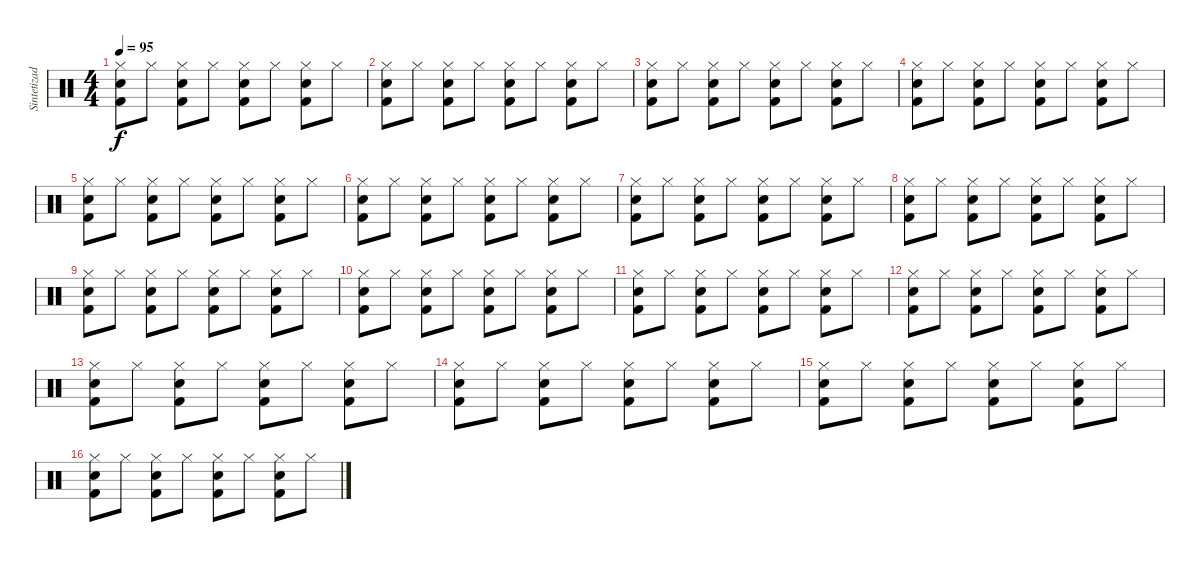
\track ("Sintetizador" "Sintetizad") {instrument percussion}
\staff {score}
\articulation defaults
\ts (4 4)
\tempo 95
\clef neutral
\ks c
("Hi-Hat (closed)" "Hand Clap (hit)" "Kick (hit) 2").8{dy f} "Hi-Hat (closed)".8 ("Hi-Hat (closed)" "Hand Clap (hit)" "Kick (hit) 2").8 "Hi-Hat (closed)".8 ("Hi-Hat (closed)" "Hand Clap (hit)" "Kick (hit) 2").8 "Hi-Hat (closed)".8 ("Hi-Hat (closed)" "Hand Clap (hit)" "Kick (hit) 2").8 "Hi-Hat (closed)".8 |
("Hi-Hat (closed)" "Hand Clap (hit)" "Kick (hit) 2").8 "Hi-Hat (closed)".8 ("Hi-Hat (closed)" "Hand Clap (hit)" "Kick (hit) 2").8 "Hi-Hat (closed)".8 ("Hi-Hat (closed)" "Hand Clap (hit)" "Kick (hit) 2").8 "Hi-Hat (closed)".8 ("Hi-Hat (closed)" "Hand Clap (hit)" "Kick (hit) 2").8 "Hi-Hat (closed)".8 |
("Hi-Hat (closed)" "Hand Clap (hit)" "Kick (hit) 2").8 "Hi-Hat (closed)".8 ("Hi-Hat (closed)" "Hand Clap (hit)" "Kick (hit) 2").8 "Hi-Hat (closed)".8 ("Hi-Hat (closed)" "Hand Clap (hit)" "Kick (hit) 2").8 "Hi-Hat (closed)".8 ("Hi-Hat (closed)" "Hand Clap (hit)" "Kick (hit) 2").8 "Hi-Hat (closed)".8 |
("Hi-Hat (closed)" "Hand Clap (hit)" "Kick (hit) 2").8 "Hi-Hat (closed)".8 ("Hi-Hat (closed)" "Hand Clap (hit)" "Kick (hit) 2").8 "Hi-Hat (closed)".8 ("Hi-Hat (closed)" "Hand Clap (hit)" "Kick (hit) 2").8 "Hi-Hat (closed)".8 ("Hi-Hat (closed)" "Hand Clap (hit)" "Kick (hit) 2").8 "Hi-Hat (closed)".8 |
("Hi-Hat (closed)" "Hand Clap (hit)" "Kick (hit) 2").8 "Hi-Hat (closed)".8 ("Hi-Hat (closed)" "Hand Clap (hit)" "Kick (hit) 2").8 "Hi-Hat (closed)".8 ("Hi-Hat (closed)" "Hand Clap (hit)" "Kick (hit) 2").8 "Hi-Hat (closed)".8 ("Hi-Hat (closed)" "Hand Clap (hit)" "Kick (hit) 2").8 "Hi-Hat (closed)".8 |
("Hi-Hat (closed)" "Hand Clap (hit)" "Kick (hit) 2").8 "Hi-Hat (closed)".8 ("Hi-Hat (closed)" "Hand Clap (hit)" "Kick (hit) 2").8 "Hi-Hat (closed)".8 ("Hi-Hat (closed)" "Hand Clap (hit)" "Kick (hit) 2").8 "Hi-Hat (closed)".8 ("Hi-Hat (closed)" "Hand Clap (hit)" "Kick (hit) 2").8 "Hi-Hat (closed)".8 |
("Hi-Hat (closed)" "Hand Clap (hit)" "Kick (hit) 2").8 "Hi-Hat (closed)".8 ("Hi-Hat (closed)" "Hand Clap (hit)" "Kick (hit) 2").8 "Hi-Hat (closed)".8 ("Hi-Hat (closed)" "Hand Clap (hit)" "Kick (hit) 2").8 "Hi-Hat (closed)".8 ("Hi-Hat (closed)" "Hand Clap (hit)" "Kick (hit) 2").8 "Hi-Hat (closed)".8 |
("Hi-Hat (closed)" "Hand Clap (hit)" "Kick (hit) 2").8 "Hi-Hat (closed)".8 ("Hi-Hat (closed)" "Hand Clap (hit)" "Kick (hit) 2").8 "Hi-Hat (closed)".8 ("Hi-Hat (closed)" "Hand Clap (hit)" "Kick (hit) 2").8 "Hi-Hat (closed)".8 ("Hi-Hat (closed)" "Hand Clap (hit)" "Kick (hit) 2").8 "Hi-Hat (closed)".8 |
("Hi-Hat (closed)" "Hand Clap (hit)" "Kick (hit) 2").8 "Hi-Hat (closed)".8 ("Hi-Hat (closed)" "Hand Clap (hit)" "Kick (hit) 2").8 "Hi-Hat (closed)".8 ("Hi-Hat (closed)" "Hand Clap (hit)" "Kick (hit) 2").8 "Hi-Hat (closed)".8 ("Hi-Hat (closed)" "Hand Clap (hit)" "Kick (hit) 2").8 "Hi-Hat (closed)".8 |
("Hi-Hat (closed)" "Hand Clap (hit)" "Kick (hit) 2").8 "Hi-Hat (closed)".8 ("Hi-Hat (closed)" "Hand Clap (hit)" "Kick (hit) 2").8 "Hi-Hat (closed)".8 ("Hi-Hat (closed)" "Hand Clap (hit)" "Kick (hit) 2").8 "Hi-Hat (closed)".8 ("Hi-Hat (closed)" "Hand Clap (hit)" "Kick (hit) 2").8 "Hi-Hat (closed)".8 |
("Hi-Hat (closed)" "Hand Clap (hit)" "Kick (hit) 2").8 "Hi-Hat (closed)".8 ("Hi-Hat (closed)" "Hand Clap (hit)" "Kick (hit) 2").8 "Hi-Hat (closed)".8 ("Hi-Hat (closed)" "Hand Clap (hit)" "Kick (hit) 2").8 "Hi-Hat (closed)".8 ("Hi-Hat (closed)" "Hand Clap (hit)" "Kick (hit) 2").8 "Hi-Hat (closed)".8 |
("Hi-Hat (closed)" "Hand Clap (hit)" "Kick (hit) 2").8 "Hi-Hat (closed)".8 ("Hi-Hat (closed)" "Hand Clap (hit)" "Kick (hit) 2").8 "Hi-Hat (closed)".8 ("Hi-Hat (closed)" "Hand Clap (hit)" "Kick (hit) 2").8 "Hi-Hat (closed)".8 ("Hi-Hat (closed)" "Hand Clap (hit)" "Kick (hit) 2").8 "Hi-Hat (closed)".8 |
("Hi-Hat (closed)" "Hand Clap (hit)" "Kick (hit) 2").8 "Hi-Hat (closed)".8 ("Hi-Hat (closed)" "Hand Clap (hit)" "Kick (hit) 2").8 "Hi-Hat (closed)".8 ("Hi-Hat (closed)" "Hand Clap (hit)" "Kick (hit) 2").8 "Hi-Hat (closed)".8 ("Hi-Hat (closed)" "Hand Clap (hit)" "Kick (hit) 2").8 "Hi-Hat (closed)".8 |
("Hi-Hat (closed)" "Hand Clap (hit)" "Kick (hit) 2").8 "Hi-Hat (closed)".8 ("Hi-Hat (closed)" "Hand Clap (hit)" "Kick (hit) 2").8 "Hi-Hat (closed)".8 ("Hi-Hat (closed)" "Hand Clap (hit)" "Kick (hit) 2").8 "Hi-Hat (closed)".8 ("Hi-Hat (closed)" "Hand Clap (hit)" "Kick (hit) 2").8 "Hi-Hat (closed)".8 |
("Hi-Hat (closed)" "Hand Clap (hit)" "Kick (hit) 2").8 "Hi-Hat (closed)".8 ("Hi-Hat (closed)" "Hand Clap (hit)" "Kick (hit) 2").8 "Hi-Hat (closed)".8 ("Hi-Hat (closed)" "Hand Clap (hit)" "Kick (hit) 2").8 "Hi-Hat (closed)".8 ("Hi-Hat (closed)" "Hand Clap (hit)" "Kick (hit) 2").8 "Hi-Hat (closed)".8 |
("Hi-Hat (closed)" "Hand Clap (hit)" "Kick (hit) 2").8 "Hi-Hat (closed)".8 ("Hi-Hat (closed)" "Hand Clap (hit)" "Kick (hit) 2").8 "Hi-Hat (closed)".8 ("Hi-Hat (closed)" "Hand Clap (hit)" "Kick (hit) 2").8 "Hi-Hat (closed)".8 ("Hi-Hat (closed)" "Hand Clap (hit)" "Kick (hit) 2").8 "Hi-Hat (closed)".8
